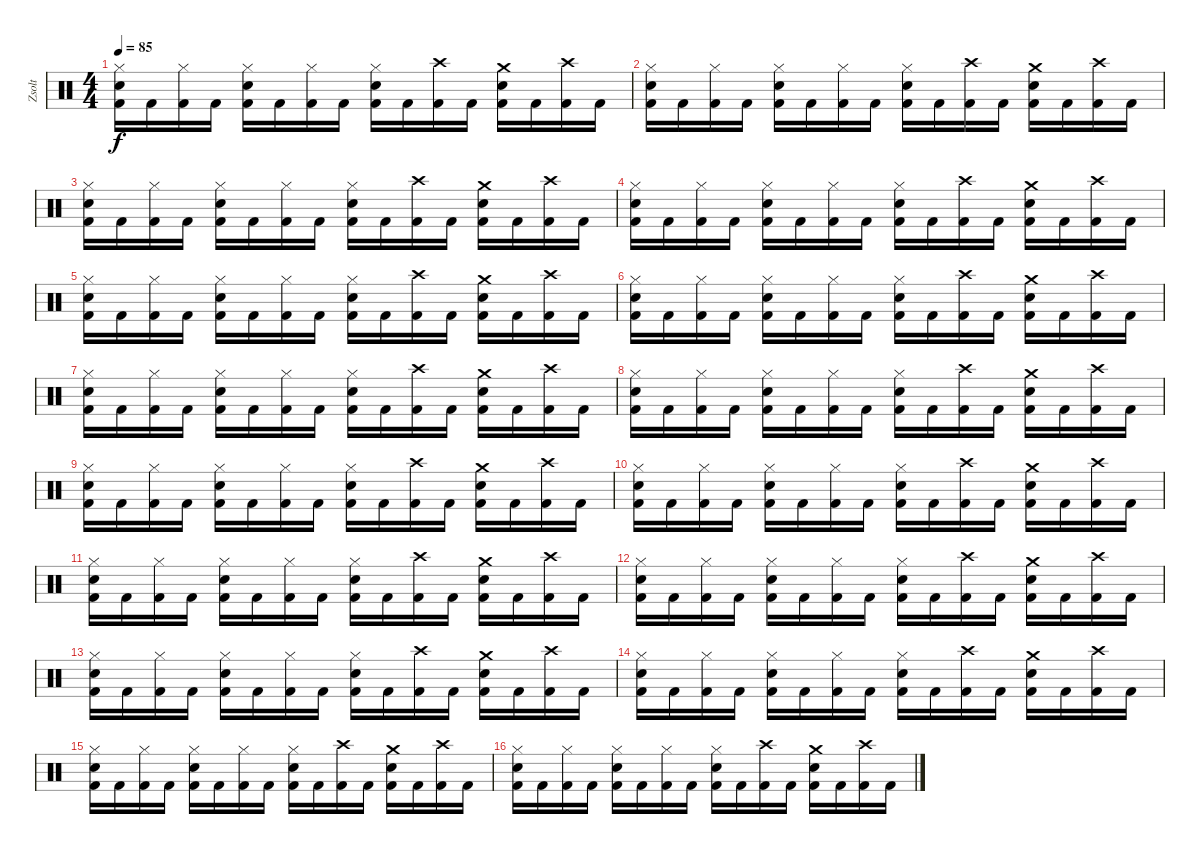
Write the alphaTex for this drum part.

\track ("Zsolt" "Zsolt") {instrument percussion}
\staff {score}
\articulation defaults
\ts (4 4)
\tempo 85
\clef neutral
\ks c
("Hi-Hat (closed)" "Electric Snare (hit)" "Kick (hit) 2").16{dy f} "Kick (hit) 2".16 ("Hi-Hat (closed)" "Kick (hit) 2").16 "Kick (hit) 2".16 ("Hi-Hat (closed)" "Electric Snare (hit)" "Kick (hit) 2").16 "Kick (hit) 2".16 ("Hi-Hat (closed)" "Kick (hit) 2").16 "Kick (hit) 2".16 ("Hi-Hat (closed)" "Electric Snare (hit)" "Kick (hit) 2").16 "Kick (hit) 2".16 ("Crash high (hit)" "Kick (hit) 2").16 "Kick (hit) 2".16 ("Crash medium (hit)" "Electric Snare (hit)" "Kick (hit) 2").16 "Kick (hit) 2".16 ("Crash high (hit)" "Kick (hit) 2").16 "Kick (hit) 2".16 |
("Hi-Hat (closed)" "Electric Snare (hit)" "Kick (hit) 2").16 "Kick (hit) 2".16 ("Hi-Hat (closed)" "Kick (hit) 2").16 "Kick (hit) 2".16 ("Hi-Hat (closed)" "Electric Snare (hit)" "Kick (hit) 2").16 "Kick (hit) 2".16 ("Hi-Hat (closed)" "Kick (hit) 2").16 "Kick (hit) 2".16 ("Hi-Hat (closed)" "Electric Snare (hit)" "Kick (hit) 2").16 "Kick (hit) 2".16 ("Crash high (hit)" "Kick (hit) 2").16 "Kick (hit) 2".16 ("Crash medium (hit)" "Electric Snare (hit)" "Kick (hit) 2").16 "Kick (hit) 2".16 ("Crash high (hit)" "Kick (hit) 2").16 "Kick (hit) 2".16 |
("Hi-Hat (closed)" "Electric Snare (hit)" "Kick (hit) 2").16 "Kick (hit) 2".16 ("Hi-Hat (closed)" "Kick (hit) 2").16 "Kick (hit) 2".16 ("Hi-Hat (closed)" "Electric Snare (hit)" "Kick (hit) 2").16 "Kick (hit) 2".16 ("Hi-Hat (closed)" "Kick (hit) 2").16 "Kick (hit) 2".16 ("Hi-Hat (closed)" "Electric Snare (hit)" "Kick (hit) 2").16 "Kick (hit) 2".16 ("Crash high (hit)" "Kick (hit) 2").16 "Kick (hit) 2".16 ("Crash medium (hit)" "Electric Snare (hit)" "Kick (hit) 2").16 "Kick (hit) 2".16 ("Crash high (hit)" "Kick (hit) 2").16 "Kick (hit) 2".16 |
("Hi-Hat (closed)" "Electric Snare (hit)" "Kick (hit) 2").16 "Kick (hit) 2".16 ("Hi-Hat (closed)" "Kick (hit) 2").16 "Kick (hit) 2".16 ("Hi-Hat (closed)" "Electric Snare (hit)" "Kick (hit) 2").16 "Kick (hit) 2".16 ("Hi-Hat (closed)" "Kick (hit) 2").16 "Kick (hit) 2".16 ("Hi-Hat (closed)" "Electric Snare (hit)" "Kick (hit) 2").16 "Kick (hit) 2".16 ("Crash high (hit)" "Kick (hit) 2").16 "Kick (hit) 2".16 ("Crash medium (hit)" "Electric Snare (hit)" "Kick (hit) 2").16 "Kick (hit) 2".16 ("Crash high (hit)" "Kick (hit) 2").16 "Kick (hit) 2".16 |
("Hi-Hat (closed)" "Electric Snare (hit)" "Kick (hit) 2").16 "Kick (hit) 2".16 ("Hi-Hat (closed)" "Kick (hit) 2").16 "Kick (hit) 2".16 ("Hi-Hat (closed)" "Electric Snare (hit)" "Kick (hit) 2").16 "Kick (hit) 2".16 ("Hi-Hat (closed)" "Kick (hit) 2").16 "Kick (hit) 2".16 ("Hi-Hat (closed)" "Electric Snare (hit)" "Kick (hit) 2").16 "Kick (hit) 2".16 ("Crash high (hit)" "Kick (hit) 2").16 "Kick (hit) 2".16 ("Crash medium (hit)" "Electric Snare (hit)" "Kick (hit) 2").16 "Kick (hit) 2".16 ("Crash high (hit)" "Kick (hit) 2").16 "Kick (hit) 2".16 |
("Hi-Hat (closed)" "Electric Snare (hit)" "Kick (hit) 2").16 "Kick (hit) 2".16 ("Hi-Hat (closed)" "Kick (hit) 2").16 "Kick (hit) 2".16 ("Hi-Hat (closed)" "Electric Snare (hit)" "Kick (hit) 2").16 "Kick (hit) 2".16 ("Hi-Hat (closed)" "Kick (hit) 2").16 "Kick (hit) 2".16 ("Hi-Hat (closed)" "Electric Snare (hit)" "Kick (hit) 2").16 "Kick (hit) 2".16 ("Crash high (hit)" "Kick (hit) 2").16 "Kick (hit) 2".16 ("Crash medium (hit)" "Electric Snare (hit)" "Kick (hit) 2").16 "Kick (hit) 2".16 ("Crash high (hit)" "Kick (hit) 2").16 "Kick (hit) 2".16 |
("Hi-Hat (closed)" "Electric Snare (hit)" "Kick (hit) 2").16 "Kick (hit) 2".16 ("Hi-Hat (closed)" "Kick (hit) 2").16 "Kick (hit) 2".16 ("Hi-Hat (closed)" "Electric Snare (hit)" "Kick (hit) 2").16 "Kick (hit) 2".16 ("Hi-Hat (closed)" "Kick (hit) 2").16 "Kick (hit) 2".16 ("Hi-Hat (closed)" "Electric Snare (hit)" "Kick (hit) 2").16 "Kick (hit) 2".16 ("Crash high (hit)" "Kick (hit) 2").16 "Kick (hit) 2".16 ("Crash medium (hit)" "Electric Snare (hit)" "Kick (hit) 2").16 "Kick (hit) 2".16 ("Crash high (hit)" "Kick (hit) 2").16 "Kick (hit) 2".16 |
("Hi-Hat (closed)" "Electric Snare (hit)" "Kick (hit) 2").16 "Kick (hit) 2".16 ("Hi-Hat (closed)" "Kick (hit) 2").16 "Kick (hit) 2".16 ("Hi-Hat (closed)" "Electric Snare (hit)" "Kick (hit) 2").16 "Kick (hit) 2".16 ("Hi-Hat (closed)" "Kick (hit) 2").16 "Kick (hit) 2".16 ("Hi-Hat (closed)" "Electric Snare (hit)" "Kick (hit) 2").16 "Kick (hit) 2".16 ("Crash high (hit)" "Kick (hit) 2").16 "Kick (hit) 2".16 ("Crash medium (hit)" "Electric Snare (hit)" "Kick (hit) 2").16 "Kick (hit) 2".16 ("Crash high (hit)" "Kick (hit) 2").16 "Kick (hit) 2".16 |
("Hi-Hat (closed)" "Electric Snare (hit)" "Kick (hit) 2").16 "Kick (hit) 2".16 ("Hi-Hat (closed)" "Kick (hit) 2").16 "Kick (hit) 2".16 ("Hi-Hat (closed)" "Electric Snare (hit)" "Kick (hit) 2").16 "Kick (hit) 2".16 ("Hi-Hat (closed)" "Kick (hit) 2").16 "Kick (hit) 2".16 ("Hi-Hat (closed)" "Electric Snare (hit)" "Kick (hit) 2").16 "Kick (hit) 2".16 ("Crash high (hit)" "Kick (hit) 2").16 "Kick (hit) 2".16 ("Crash medium (hit)" "Electric Snare (hit)" "Kick (hit) 2").16 "Kick (hit) 2".16 ("Crash high (hit)" "Kick (hit) 2").16 "Kick (hit) 2".16 |
("Hi-Hat (closed)" "Electric Snare (hit)" "Kick (hit) 2").16 "Kick (hit) 2".16 ("Hi-Hat (closed)" "Kick (hit) 2").16 "Kick (hit) 2".16 ("Hi-Hat (closed)" "Electric Snare (hit)" "Kick (hit) 2").16 "Kick (hit) 2".16 ("Hi-Hat (closed)" "Kick (hit) 2").16 "Kick (hit) 2".16 ("Hi-Hat (closed)" "Electric Snare (hit)" "Kick (hit) 2").16 "Kick (hit) 2".16 ("Crash high (hit)" "Kick (hit) 2").16 "Kick (hit) 2".16 ("Crash medium (hit)" "Electric Snare (hit)" "Kick (hit) 2").16 "Kick (hit) 2".16 ("Crash high (hit)" "Kick (hit) 2").16 "Kick (hit) 2".16 |
("Hi-Hat (closed)" "Electric Snare (hit)" "Kick (hit) 2").16 "Kick (hit) 2".16 ("Hi-Hat (closed)" "Kick (hit) 2").16 "Kick (hit) 2".16 ("Hi-Hat (closed)" "Electric Snare (hit)" "Kick (hit) 2").16 "Kick (hit) 2".16 ("Hi-Hat (closed)" "Kick (hit) 2").16 "Kick (hit) 2".16 ("Hi-Hat (closed)" "Electric Snare (hit)" "Kick (hit) 2").16 "Kick (hit) 2".16 ("Crash high (hit)" "Kick (hit) 2").16 "Kick (hit) 2".16 ("Crash medium (hit)" "Electric Snare (hit)" "Kick (hit) 2").16 "Kick (hit) 2".16 ("Crash high (hit)" "Kick (hit) 2").16 "Kick (hit) 2".16 |
("Hi-Hat (closed)" "Electric Snare (hit)" "Kick (hit) 2").16 "Kick (hit) 2".16 ("Hi-Hat (closed)" "Kick (hit) 2").16 "Kick (hit) 2".16 ("Hi-Hat (closed)" "Electric Snare (hit)" "Kick (hit) 2").16 "Kick (hit) 2".16 ("Hi-Hat (closed)" "Kick (hit) 2").16 "Kick (hit) 2".16 ("Hi-Hat (closed)" "Electric Snare (hit)" "Kick (hit) 2").16 "Kick (hit) 2".16 ("Crash high (hit)" "Kick (hit) 2").16 "Kick (hit) 2".16 ("Crash medium (hit)" "Electric Snare (hit)" "Kick (hit) 2").16 "Kick (hit) 2".16 ("Crash high (hit)" "Kick (hit) 2").16 "Kick (hit) 2".16 |
("Hi-Hat (closed)" "Electric Snare (hit)" "Kick (hit) 2").16 "Kick (hit) 2".16 ("Hi-Hat (closed)" "Kick (hit) 2").16 "Kick (hit) 2".16 ("Hi-Hat (closed)" "Electric Snare (hit)" "Kick (hit) 2").16 "Kick (hit) 2".16 ("Hi-Hat (closed)" "Kick (hit) 2").16 "Kick (hit) 2".16 ("Hi-Hat (closed)" "Electric Snare (hit)" "Kick (hit) 2").16 "Kick (hit) 2".16 ("Crash high (hit)" "Kick (hit) 2").16 "Kick (hit) 2".16 ("Crash medium (hit)" "Electric Snare (hit)" "Kick (hit) 2").16 "Kick (hit) 2".16 ("Crash high (hit)" "Kick (hit) 2").16 "Kick (hit) 2".16 |
("Hi-Hat (closed)" "Electric Snare (hit)" "Kick (hit) 2").16 "Kick (hit) 2".16 ("Hi-Hat (closed)" "Kick (hit) 2").16 "Kick (hit) 2".16 ("Hi-Hat (closed)" "Electric Snare (hit)" "Kick (hit) 2").16 "Kick (hit) 2".16 ("Hi-Hat (closed)" "Kick (hit) 2").16 "Kick (hit) 2".16 ("Hi-Hat (closed)" "Electric Snare (hit)" "Kick (hit) 2").16 "Kick (hit) 2".16 ("Crash high (hit)" "Kick (hit) 2").16 "Kick (hit) 2".16 ("Crash medium (hit)" "Electric Snare (hit)" "Kick (hit) 2").16 "Kick (hit) 2".16 ("Crash high (hit)" "Kick (hit) 2").16 "Kick (hit) 2".16 |
("Hi-Hat (closed)" "Electric Snare (hit)" "Kick (hit) 2").16 "Kick (hit) 2".16 ("Hi-Hat (closed)" "Kick (hit) 2").16 "Kick (hit) 2".16 ("Hi-Hat (closed)" "Electric Snare (hit)" "Kick (hit) 2").16 "Kick (hit) 2".16 ("Hi-Hat (closed)" "Kick (hit) 2").16 "Kick (hit) 2".16 ("Hi-Hat (closed)" "Electric Snare (hit)" "Kick (hit) 2").16 "Kick (hit) 2".16 ("Crash high (hit)" "Kick (hit) 2").16 "Kick (hit) 2".16 ("Crash medium (hit)" "Electric Snare (hit)" "Kick (hit) 2").16 "Kick (hit) 2".16 ("Crash high (hit)" "Kick (hit) 2").16 "Kick (hit) 2".16 |
("Hi-Hat (closed)" "Electric Snare (hit)" "Kick (hit) 2").16 "Kick (hit) 2".16 ("Hi-Hat (closed)" "Kick (hit) 2").16 "Kick (hit) 2".16 ("Hi-Hat (closed)" "Electric Snare (hit)" "Kick (hit) 2").16 "Kick (hit) 2".16 ("Hi-Hat (closed)" "Kick (hit) 2").16 "Kick (hit) 2".16 ("Hi-Hat (closed)" "Electric Snare (hit)" "Kick (hit) 2").16 "Kick (hit) 2".16 ("Crash high (hit)" "Kick (hit) 2").16 "Kick (hit) 2".16 ("Crash medium (hit)" "Electric Snare (hit)" "Kick (hit) 2").16 "Kick (hit) 2".16 ("Crash high (hit)" "Kick (hit) 2").16 "Kick (hit) 2".16
